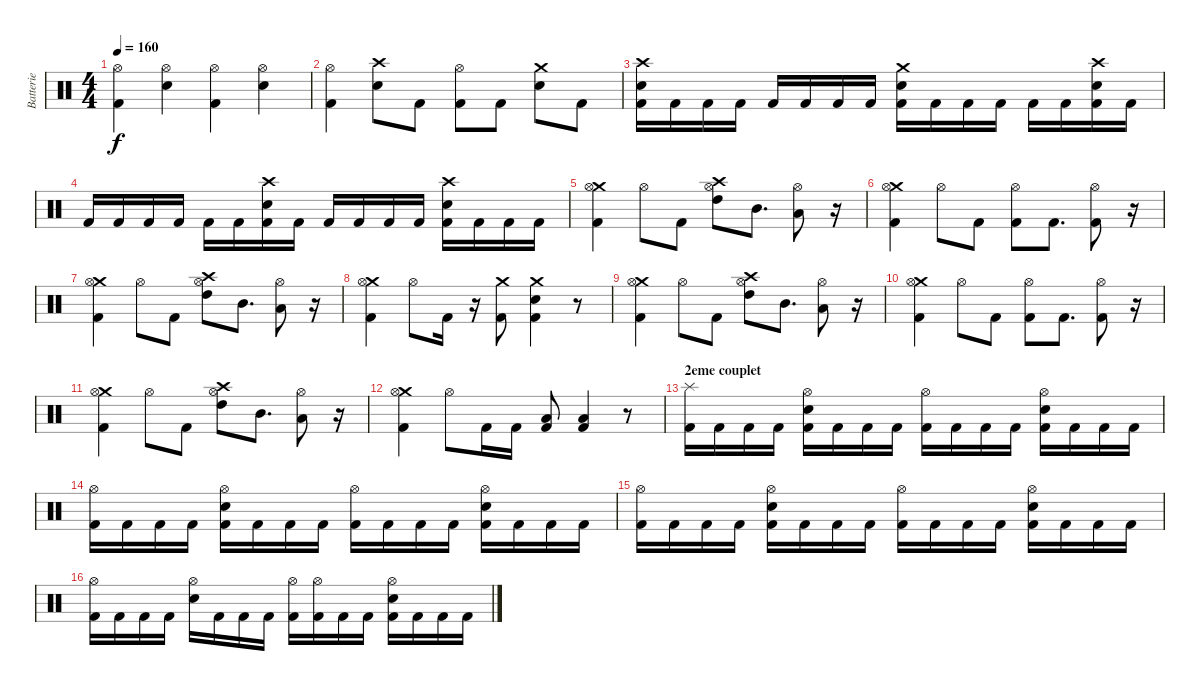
\track ("Batterie" "Batterie") {instrument percussion}
\staff {score}
\articulation defaults
\ts (4 4)
\tempo 160
\clef neutral
\ks c
("Hi-Hat (open)" "Kick (hit) 2").4{dy f} ("Hi-Hat (open)" "Electric Snare (hit)").4 ("Hi-Hat (open)" "Kick (hit) 2").4 ("Hi-Hat (open)" "Electric Snare (hit)").4 |
("Hi-Hat (open)" "Kick (hit) 2").4 ("Crash high (hit)" "Electric Snare (hit)").8 "Kick (hit) 2".8 ("Hi-Hat (open)" "Kick (hit) 2").8 "Kick (hit) 2".8 ("Crash medium (hit)" "Electric Snare (hit)").8 "Kick (hit) 2".8 |
("Crash high (hit)" "Electric Snare (hit)" "Kick (hit) 2").16 "Kick (hit) 2".16 "Kick (hit) 2".16 "Kick (hit) 2".16 "Kick (hit) 2".16 "Kick (hit) 2".16 "Kick (hit) 2".16 "Kick (hit) 2".16 ("Crash medium (hit)" "Electric Snare (hit)" "Kick (hit) 2").16 "Kick (hit) 2".16 "Kick (hit) 2".16 "Kick (hit) 2".16 "Kick (hit) 2".16 "Kick (hit) 2".16 ("Crash high (hit)" "Electric Snare (hit)" "Kick (hit) 2").16 "Kick (hit) 2".16 |
"Kick (hit) 2".16 "Kick (hit) 2".16 "Kick (hit) 2".16 "Kick (hit) 2".16 "Kick (hit) 2".16 "Kick (hit) 2".16 ("Crash high (hit)" "Electric Snare (hit)" "Kick (hit) 2").16 "Kick (hit) 2".16 "Kick (hit) 2".16 "Kick (hit) 2".16 "Kick (hit) 2".16 "Kick (hit) 2".16 ("Crash high (hit)" "Electric Snare (hit)" "Kick (hit) 2").16 "Kick (hit) 2".16 "Kick (hit) 2".16 "Kick (hit) 2".16 |
("Crash medium (hit)" "Hi-Hat (open)" "Kick (hit) 2").4 "Hi-Hat (open)".8 "Kick (hit) 2".8 ("Crash high (hit)" "Hi-Hat (open)" "High Tom (hit)").8 "Mid Tom (hit)".8{d} ("Hi-Hat (open)" "Low Tom (hit)").8 r.16 |
("Crash medium (hit)" "Hi-Hat (open)" "Kick (hit) 2").4 "Hi-Hat (open)".8 "Kick (hit) 2".8 ("Hi-Hat (open)" "Kick (hit) 2").8 "Kick (hit) 2".8{d} ("Hi-Hat (open)" "Kick (hit) 2").8 r.16 |
("Crash medium (hit)" "Hi-Hat (open)" "Kick (hit) 2").4 "Hi-Hat (open)".8 "Kick (hit) 2".8 ("Crash high (hit)" "Hi-Hat (open)" "High Tom (hit)").8 "Mid Tom (hit)".8{d} ("Hi-Hat (open)" "Low Tom (hit)").8 r.16 |
("Crash medium (hit)" "Hi-Hat (open)" "Kick (hit) 2").4 "Hi-Hat (open)".8 "Kick (hit) 2".16 r.16 ("Crash medium (hit)" "Kick (hit) 2").8 ("Crash medium (hit)" "Electric Snare (hit)" "Kick (hit) 2").4 r.8 |
("Crash medium (hit)" "Hi-Hat (open)" "Kick (hit) 2").4 "Hi-Hat (open)".8 "Kick (hit) 2".8 ("Crash high (hit)" "Hi-Hat (open)" "High Tom (hit)").8 "Mid Tom (hit)".8{d} ("Hi-Hat (open)" "Low Tom (hit)").8 r.16 |
("Crash medium (hit)" "Hi-Hat (open)" "Kick (hit) 2").4 "Hi-Hat (open)".8 "Kick (hit) 2".8 ("Hi-Hat (open)" "Kick (hit) 2").8 "Kick (hit) 2".8{d} ("Hi-Hat (open)" "Kick (hit) 2").8 r.16 |
("Crash medium (hit)" "Hi-Hat (open)" "Kick (hit) 2").4 "Hi-Hat (open)".8 "Kick (hit) 2".8 ("Crash high (hit)" "Hi-Hat (open)" "High Tom (hit)").8 "Mid Tom (hit)".8{d} ("Hi-Hat (open)" "Low Tom (hit)").8 r.16 |
("Crash medium (hit)" "Hi-Hat (open)" "Kick (hit) 2").4 "Hi-Hat (open)".8 "Kick (hit) 2".16 "Kick (hit) 2".16 ("Low Tom (hit)" "Kick (hit) 2").8 ("Low Tom (hit)" "Kick (hit) 2").4 r.8 |
\section ("" "2eme couplet")
("Splash (hit)" "Kick (hit) 2").16 "Kick (hit) 2".16 "Kick (hit) 2".16 "Kick (hit) 2".16 ("Kick (hit) 2" "Hi-Hat (open)" "Electric Snare (hit)").16 "Kick (hit) 2".16 "Kick (hit) 2".16 "Kick (hit) 2".16 ("Hi-Hat (open)" "Kick (hit) 2").16 "Kick (hit) 2".16 "Kick (hit) 2".16 "Kick (hit) 2".16 ("Kick (hit) 2" "Hi-Hat (open)" "Electric Snare (hit)").16 "Kick (hit) 2".16 "Kick (hit) 2".16 "Kick (hit) 2".16 |
("Hi-Hat (open)" "Kick (hit) 2").16 "Kick (hit) 2".16 "Kick (hit) 2".16 "Kick (hit) 2".16 ("Kick (hit) 2" "Hi-Hat (open)" "Electric Snare (hit)").16 "Kick (hit) 2".16 "Kick (hit) 2".16 "Kick (hit) 2".16 ("Hi-Hat (open)" "Kick (hit) 2").16 "Kick (hit) 2".16 "Kick (hit) 2".16 "Kick (hit) 2".16 ("Kick (hit) 2" "Hi-Hat (open)" "Electric Snare (hit)").16 "Kick (hit) 2".16 "Kick (hit) 2".16 "Kick (hit) 2".16 |
("Hi-Hat (open)" "Kick (hit) 2").16 "Kick (hit) 2".16 "Kick (hit) 2".16 "Kick (hit) 2".16 ("Kick (hit) 2" "Hi-Hat (open)" "Electric Snare (hit)").16 "Kick (hit) 2".16 "Kick (hit) 2".16 "Kick (hit) 2".16 ("Hi-Hat (open)" "Kick (hit) 2").16 "Kick (hit) 2".16 "Kick (hit) 2".16 "Kick (hit) 2".16 ("Kick (hit) 2" "Hi-Hat (open)" "Electric Snare (hit)").16 "Kick (hit) 2".16 "Kick (hit) 2".16 "Kick (hit) 2".16 |
("Hi-Hat (open)" "Kick (hit) 2").16 "Kick (hit) 2".16 "Kick (hit) 2".16 "Kick (hit) 2".16 ("Hi-Hat (open)" "Electric Snare (hit)").16 "Kick (hit) 2".16 "Kick (hit) 2".16 "Kick (hit) 2".16 ("Hi-Hat (open)" "Kick (hit) 2").16 ("Hi-Hat (open)" "Kick (hit) 2").16 "Kick (hit) 2".16 "Kick (hit) 2".16 ("Hi-Hat (open)" "Electric Snare (hit)" "Kick (hit) 2").16 "Kick (hit) 2".16 "Kick (hit) 2".16 "Kick (hit) 2".16
